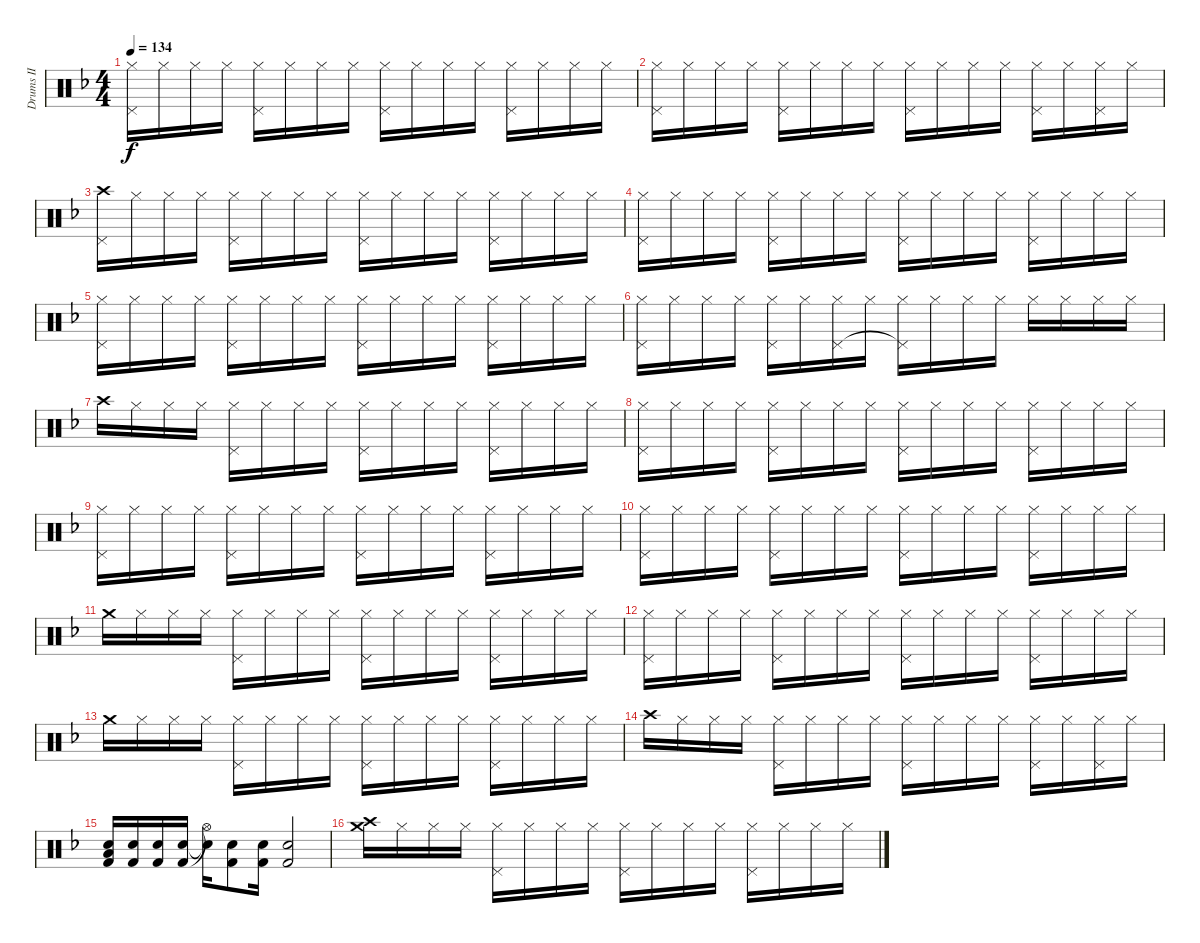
\track ("Drums II" "Drums II") {instrument percussion}
\staff {score}
\articulation defaults
\ts (4 4)
\tempo 134
\clef neutral
\ks f
("Hi-Hat (closed)" "Pedal Hi-Hat (hit)").16{dy f} "Hi-Hat (closed)".16 "Hi-Hat (closed)".16 "Hi-Hat (closed)".16 ("Hi-Hat (closed)" "Pedal Hi-Hat (hit)").16 "Hi-Hat (closed)".16 "Hi-Hat (closed)".16 "Hi-Hat (closed)".16 ("Hi-Hat (closed)" "Pedal Hi-Hat (hit)").16 "Hi-Hat (closed)".16 "Hi-Hat (closed)".16 "Hi-Hat (closed)".16 ("Hi-Hat (closed)" "Pedal Hi-Hat (hit)").16 "Hi-Hat (closed)".16 "Hi-Hat (closed)".16 "Hi-Hat (closed)".16 |
("Hi-Hat (closed)" "Pedal Hi-Hat (hit)").16 "Hi-Hat (closed)".16 "Hi-Hat (closed)".16 "Hi-Hat (closed)".16 ("Hi-Hat (closed)" "Pedal Hi-Hat (hit)").16 "Hi-Hat (closed)".16 "Hi-Hat (closed)".16 "Hi-Hat (closed)".16 ("Hi-Hat (closed)" "Pedal Hi-Hat (hit)").16 "Hi-Hat (closed)".16 "Hi-Hat (closed)".16 "Hi-Hat (closed)".16 ("Hi-Hat (closed)" "Pedal Hi-Hat (hit)").16 "Hi-Hat (closed)".16 ("Hi-Hat (closed)" "Pedal Hi-Hat (hit)").16 "Hi-Hat (closed)".16 |
("Crash high (hit)" "Pedal Hi-Hat (hit)").16 "Hi-Hat (closed)".16 "Hi-Hat (closed)".16 "Hi-Hat (closed)".16 ("Hi-Hat (closed)" "Pedal Hi-Hat (hit)").16 "Hi-Hat (closed)".16 "Hi-Hat (closed)".16 "Hi-Hat (closed)".16 ("Hi-Hat (closed)" "Pedal Hi-Hat (hit)").16 "Hi-Hat (closed)".16 "Hi-Hat (closed)".16 "Hi-Hat (closed)".16 ("Hi-Hat (closed)" "Pedal Hi-Hat (hit)").16 "Hi-Hat (closed)".16 "Hi-Hat (closed)".16 "Hi-Hat (closed)".16 |
("Hi-Hat (closed)" "Pedal Hi-Hat (hit)").16 "Hi-Hat (closed)".16 "Hi-Hat (closed)".16 "Hi-Hat (closed)".16 ("Hi-Hat (closed)" "Pedal Hi-Hat (hit)").16 "Hi-Hat (closed)".16 "Hi-Hat (closed)".16 "Hi-Hat (closed)".16 ("Hi-Hat (closed)" "Pedal Hi-Hat (hit)").16 "Hi-Hat (closed)".16 "Hi-Hat (closed)".16 "Hi-Hat (closed)".16 ("Hi-Hat (closed)" "Pedal Hi-Hat (hit)").16 "Hi-Hat (closed)".16 "Hi-Hat (closed)".16 "Hi-Hat (closed)".16 |
("Hi-Hat (closed)" "Pedal Hi-Hat (hit)").16 "Hi-Hat (closed)".16 "Hi-Hat (closed)".16 "Hi-Hat (closed)".16 ("Hi-Hat (closed)" "Pedal Hi-Hat (hit)").16 "Hi-Hat (closed)".16 "Hi-Hat (closed)".16 "Hi-Hat (closed)".16 ("Hi-Hat (closed)" "Pedal Hi-Hat (hit)").16 "Hi-Hat (closed)".16 "Hi-Hat (closed)".16 "Hi-Hat (closed)".16 ("Hi-Hat (closed)" "Pedal Hi-Hat (hit)").16 "Hi-Hat (closed)".16 "Hi-Hat (closed)".16 "Hi-Hat (closed)".16 |
("Hi-Hat (closed)" "Pedal Hi-Hat (hit)").16 "Hi-Hat (closed)".16 "Hi-Hat (closed)".16 "Hi-Hat (closed)".16 ("Hi-Hat (closed)" "Pedal Hi-Hat (hit)").16 "Hi-Hat (closed)".16 ("Hi-Hat (closed)" "Pedal Hi-Hat (hit)").16 "Hi-Hat (closed)".16 ("Hi-Hat (closed)" "Pedal Hi-Hat (hit)"{t}).16 "Hi-Hat (closed)".16 "Hi-Hat (closed)".16 "Hi-Hat (closed)".16 "Hi-Hat (closed)".16 "Hi-Hat (closed)".16 "Hi-Hat (closed)".16 "Hi-Hat (closed)".16 |
"Crash high (hit)".16 "Hi-Hat (closed)".16 "Hi-Hat (closed)".16 "Hi-Hat (closed)".16 ("Hi-Hat (closed)" "Pedal Hi-Hat (hit)").16 "Hi-Hat (closed)".16 "Hi-Hat (closed)".16 "Hi-Hat (closed)".16 ("Hi-Hat (closed)" "Pedal Hi-Hat (hit)").16 "Hi-Hat (closed)".16 "Hi-Hat (closed)".16 "Hi-Hat (closed)".16 ("Hi-Hat (closed)" "Pedal Hi-Hat (hit)").16 "Hi-Hat (closed)".16 "Hi-Hat (closed)".16 "Hi-Hat (closed)".16 |
("Hi-Hat (closed)" "Pedal Hi-Hat (hit)").16 "Hi-Hat (closed)".16 "Hi-Hat (closed)".16 "Hi-Hat (closed)".16 ("Hi-Hat (closed)" "Pedal Hi-Hat (hit)").16 "Hi-Hat (closed)".16 "Hi-Hat (closed)".16 "Hi-Hat (closed)".16 ("Hi-Hat (closed)" "Pedal Hi-Hat (hit)").16 "Hi-Hat (closed)".16 "Hi-Hat (closed)".16 "Hi-Hat (closed)".16 ("Hi-Hat (closed)" "Pedal Hi-Hat (hit)").16 "Hi-Hat (closed)".16 "Hi-Hat (closed)".16 "Hi-Hat (closed)".16 |
("Hi-Hat (closed)" "Pedal Hi-Hat (hit)").16 "Hi-Hat (closed)".16 "Hi-Hat (closed)".16 "Hi-Hat (closed)".16 ("Hi-Hat (closed)" "Pedal Hi-Hat (hit)").16 "Hi-Hat (closed)".16 "Hi-Hat (closed)".16 "Hi-Hat (closed)".16 ("Hi-Hat (closed)" "Pedal Hi-Hat (hit)").16 "Hi-Hat (closed)".16 "Hi-Hat (closed)".16 "Hi-Hat (closed)".16 ("Hi-Hat (closed)" "Pedal Hi-Hat (hit)").16 "Hi-Hat (closed)".16 "Hi-Hat (closed)".16 "Hi-Hat (closed)".16 |
("Hi-Hat (closed)" "Pedal Hi-Hat (hit)").16 "Hi-Hat (closed)".16 "Hi-Hat (closed)".16 "Hi-Hat (closed)".16 ("Hi-Hat (closed)" "Pedal Hi-Hat (hit)").16 "Hi-Hat (closed)".16 "Hi-Hat (closed)".16 "Hi-Hat (closed)".16 ("Hi-Hat (closed)" "Pedal Hi-Hat (hit)").16 "Hi-Hat (closed)".16 "Hi-Hat (closed)".16 "Hi-Hat (closed)".16 ("Hi-Hat (closed)" "Pedal Hi-Hat (hit)").16 "Hi-Hat (closed)".16 "Hi-Hat (closed)".16 "Hi-Hat (closed)".16 |
"Crash medium (hit)".16 "Hi-Hat (closed)".16 "Hi-Hat (closed)".16 "Hi-Hat (closed)".16 ("Hi-Hat (closed)" "Pedal Hi-Hat (hit)").16 "Hi-Hat (closed)".16 "Hi-Hat (closed)".16 "Hi-Hat (closed)".16 ("Hi-Hat (closed)" "Pedal Hi-Hat (hit)").16 "Hi-Hat (closed)".16 "Hi-Hat (closed)".16 "Hi-Hat (closed)".16 ("Hi-Hat (closed)" "Pedal Hi-Hat (hit)").16 "Hi-Hat (closed)".16 "Hi-Hat (closed)".16 "Hi-Hat (closed)".16 |
("Hi-Hat (closed)" "Pedal Hi-Hat (hit)").16 "Hi-Hat (closed)".16 "Hi-Hat (closed)".16 "Hi-Hat (closed)".16 ("Hi-Hat (closed)" "Pedal Hi-Hat (hit)").16 "Hi-Hat (closed)".16 "Hi-Hat (closed)".16 "Hi-Hat (closed)".16 ("Hi-Hat (closed)" "Pedal Hi-Hat (hit)").16 "Hi-Hat (closed)".16 "Hi-Hat (closed)".16 "Hi-Hat (closed)".16 ("Hi-Hat (closed)" "Pedal Hi-Hat (hit)").16 "Hi-Hat (closed)".16 "Hi-Hat (closed)".16 "Hi-Hat (closed)".16 |
"Crash medium (hit)".16 "Hi-Hat (closed)".16 "Hi-Hat (closed)".16 "Hi-Hat (closed)".16 ("Hi-Hat (closed)" "Pedal Hi-Hat (hit)").16 "Hi-Hat (closed)".16 "Hi-Hat (closed)".16 "Hi-Hat (closed)".16 ("Hi-Hat (closed)" "Pedal Hi-Hat (hit)").16 "Hi-Hat (closed)".16 "Hi-Hat (closed)".16 "Hi-Hat (closed)".16 ("Hi-Hat (closed)" "Pedal Hi-Hat (hit)").16 "Hi-Hat (closed)".16 "Hi-Hat (closed)".16 "Hi-Hat (closed)".16 |
"Crash high (hit)".16 "Hi-Hat (closed)".16 "Hi-Hat (closed)".16 "Hi-Hat (closed)".16 ("Hi-Hat (closed)" "Pedal Hi-Hat (hit)").16 "Hi-Hat (closed)".16 "Hi-Hat (closed)".16 "Hi-Hat (closed)".16 ("Hi-Hat (closed)" "Pedal Hi-Hat (hit)").16 "Hi-Hat (closed)".16 "Hi-Hat (closed)".16 "Hi-Hat (closed)".16 ("Hi-Hat (closed)" "Pedal Hi-Hat (hit)").16 "Hi-Hat (closed)".16 ("Hi-Hat (closed)" "Pedal Hi-Hat (hit)").16 "Hi-Hat (closed)".16 |
("Snare (hit) 2" "Low Floor Tom (hit)" "Kick (hit) 2").16 ("Snare (hit) 2" "Kick (hit) 2").16 ("Snare (hit) 2" "Kick (hit) 2").16 ("Snare (hit) 2" "Kick (hit) 2").16 ("Snare (hit) 2"{t} "Hi-Hat (open)"{t}).16 ("Snare (hit) 2" "Kick (hit) 2").8 ("Snare (hit) 2" "Kick (hit) 2").16 ("Snare (hit) 2" "Kick (hit) 2").2 |
("Crash medium (hit)" "Crash high (hit)").16 "Hi-Hat (closed)".16 "Hi-Hat (closed)".16 "Hi-Hat (closed)".16 ("Hi-Hat (closed)" "Pedal Hi-Hat (hit)").16 "Hi-Hat (closed)".16 "Hi-Hat (closed)".16 "Hi-Hat (closed)".16 ("Hi-Hat (closed)" "Pedal Hi-Hat (hit)").16 "Hi-Hat (closed)".16 "Hi-Hat (closed)".16 "Hi-Hat (closed)".16 ("Hi-Hat (closed)" "Pedal Hi-Hat (hit)").16 "Hi-Hat (closed)".16 "Hi-Hat (closed)".16 "Hi-Hat (closed)".16
